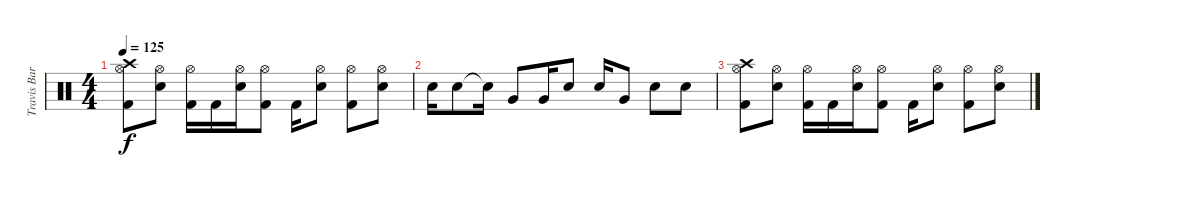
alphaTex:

\track ("Travis Barker - Drums" "Travis Bar") {instrument percussion}
\staff {score}
\articulation defaults
\ts (4 4)
\tempo 125
\clef neutral
\ks c
("Crash high (hit)" "Hi-Hat (open)" "Kick (hit) 2").8{dy f} ("Hi-Hat (open)" "Electric Snare (hit)").8 ("Hi-Hat (open)" "Kick (hit) 2").16 "Kick (hit) 2".16 ("Hi-Hat (open)" "Electric Snare (hit)").16 ("Hi-Hat (open)" "Kick (hit) 2").8 "Kick (hit) 2".16 ("Hi-Hat (open)" "Electric Snare (hit)").8 ("Hi-Hat (open)" "Kick (hit) 2").8 ("Hi-Hat (open)" "Electric Snare (hit)").8 |
"Electric Snare (hit)".16 "Electric Snare (hit)".8 "Snare (hit)"{t}.16 "Very Low Tom (hit)".8 "Very Low Tom (hit)".16 "Electric Snare (hit)".8 "Electric Snare (hit)".16 "Very Low Tom (hit)".8 "Electric Snare (hit)".8 "Electric Snare (hit)".8 |
("Crash high (hit)" "Hi-Hat (open)" "Kick (hit) 2").8 ("Hi-Hat (open)" "Electric Snare (hit)").8 ("Hi-Hat (open)" "Kick (hit) 2").16 "Kick (hit) 2".16 ("Hi-Hat (open)" "Electric Snare (hit)").16 ("Hi-Hat (open)" "Kick (hit) 2").8 "Kick (hit) 2".16 ("Hi-Hat (open)" "Electric Snare (hit)").8 ("Hi-Hat (open)" "Kick (hit) 2").8 ("Hi-Hat (open)" "Electric Snare (hit)").8
